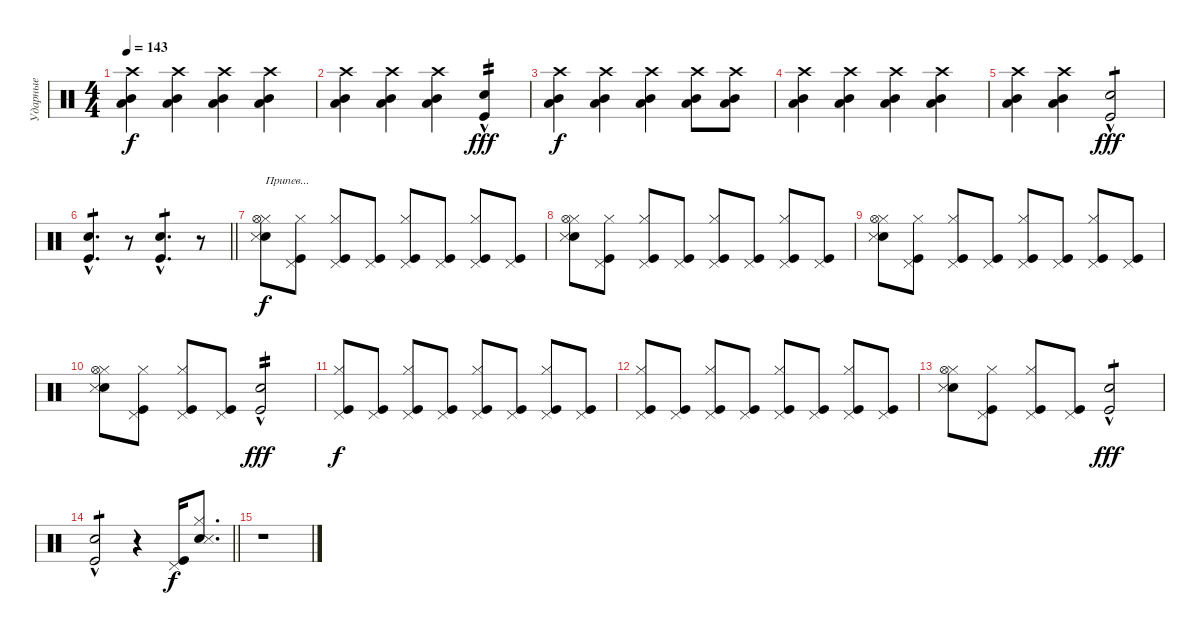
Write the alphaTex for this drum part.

\track ("Ударные" "Ударные") {instrument percussion}
\staff {score}
\articulation defaults
\ts (4 4)
\tempo 143
\clef neutral
\ks c
("Low Tom (hit)" "Mid Tom (hit)" "Crash high (hit)").4{dy f} ("Low Tom (hit)" "Mid Tom (hit)" "Crash high (hit)").4 ("Low Tom (hit)" "Mid Tom (hit)" "Crash high (hit)").4 ("Low Tom (hit)" "Mid Tom (hit)" "Crash high (hit)").4 |
("Low Tom (hit)" "Mid Tom (hit)" "Crash high (hit)").4 ("Low Tom (hit)" "Mid Tom (hit)" "Crash high (hit)").4 ("Low Tom (hit)" "Mid Tom (hit)" "Crash high (hit)").4 ("Snare (hit) 2"{hac} "Kick (hit)"{hac}).4{tp 2 dy fff} |
("Low Tom (hit)" "Mid Tom (hit)" "Crash high (hit)").4{dy f} ("Low Tom (hit)" "Mid Tom (hit)" "Crash high (hit)").4 ("Low Tom (hit)" "Mid Tom (hit)" "Crash high (hit)").4 ("Low Tom (hit)" "Mid Tom (hit)" "Crash high (hit)").8 ("Low Tom (hit)" "Mid Tom (hit)" "Crash high (hit)").8 |
("Low Tom (hit)" "Mid Tom (hit)" "Crash high (hit)").4 ("Low Tom (hit)" "Mid Tom (hit)" "Crash high (hit)").4 ("Low Tom (hit)" "Mid Tom (hit)" "Crash high (hit)").4 ("Low Tom (hit)" "Mid Tom (hit)" "Crash high (hit)").4 |
("Low Tom (hit)" "Mid Tom (hit)" "Crash high (hit)").4 ("Low Tom (hit)" "Mid Tom (hit)" "Crash high (hit)").4 ("Snare (hit) 2"{hac} "Kick (hit)"{hac}).2{tp 1 dy fff} |
\barLineRight lightlight
("Snare (hit) 2"{hac} "Kick (hit)"{hac}).4{d tp 1} r.8 ("Snare (hit) 2"{hac} "Kick (hit)"{hac}).4{d tp 1} r.8 |
("Snare (hit) 2" "Hi-Hat (closed)" "Snare (side stick) 3" "Hi-Hat (open)").8{txt "Припев..." dy f} ("Kick (hit)" "Pedal Hi-Hat (hit)" "Hi-Hat (closed)").8 ("Kick (hit)" "Pedal Hi-Hat (hit)" "Hi-Hat (closed)").8 ("Kick (hit)" "Pedal Hi-Hat (hit)").8 ("Kick (hit)" "Pedal Hi-Hat (hit)" "Hi-Hat (closed)").8 ("Kick (hit)" "Pedal Hi-Hat (hit)").8 ("Kick (hit)" "Pedal Hi-Hat (hit)" "Hi-Hat (closed)").8 ("Kick (hit)" "Pedal Hi-Hat (hit)").8 |
("Snare (hit) 2" "Hi-Hat (closed)" "Snare (side stick) 3" "Hi-Hat (open)").8 ("Kick (hit)" "Pedal Hi-Hat (hit)" "Hi-Hat (closed)").8 ("Kick (hit)" "Pedal Hi-Hat (hit)" "Hi-Hat (closed)").8 ("Kick (hit)" "Pedal Hi-Hat (hit)").8 ("Kick (hit)" "Pedal Hi-Hat (hit)" "Hi-Hat (closed)").8 ("Kick (hit)" "Pedal Hi-Hat (hit)").8 ("Kick (hit)" "Pedal Hi-Hat (hit)" "Hi-Hat (closed)").8 ("Kick (hit)" "Pedal Hi-Hat (hit)").8 |
("Snare (hit) 2" "Hi-Hat (closed)" "Snare (side stick) 3" "Hi-Hat (open)").8 ("Kick (hit)" "Pedal Hi-Hat (hit)" "Hi-Hat (closed)").8 ("Kick (hit)" "Pedal Hi-Hat (hit)" "Hi-Hat (closed)").8 ("Kick (hit)" "Pedal Hi-Hat (hit)").8 ("Kick (hit)" "Pedal Hi-Hat (hit)" "Hi-Hat (closed)").8 ("Kick (hit)" "Pedal Hi-Hat (hit)").8 ("Kick (hit)" "Pedal Hi-Hat (hit)" "Hi-Hat (closed)").8 ("Kick (hit)" "Pedal Hi-Hat (hit)").8 |
("Snare (hit) 2" "Hi-Hat (closed)" "Snare (side stick) 3" "Hi-Hat (open)").8 ("Kick (hit)" "Pedal Hi-Hat (hit)" "Hi-Hat (closed)").8 ("Kick (hit)" "Pedal Hi-Hat (hit)" "Hi-Hat (closed)").8 ("Kick (hit)" "Pedal Hi-Hat (hit)").8 ("Snare (hit) 2"{hac} "Kick (hit)"{hac}).2{tp 2 dy fff} |
("Kick (hit)" "Pedal Hi-Hat (hit)" "Hi-Hat (closed)").8{dy f} ("Kick (hit)" "Pedal Hi-Hat (hit)").8 ("Kick (hit)" "Pedal Hi-Hat (hit)" "Hi-Hat (closed)").8 ("Kick (hit)" "Pedal Hi-Hat (hit)").8 ("Kick (hit)" "Pedal Hi-Hat (hit)" "Hi-Hat (closed)").8 ("Kick (hit)" "Pedal Hi-Hat (hit)").8 ("Kick (hit)" "Pedal Hi-Hat (hit)" "Hi-Hat (closed)").8 ("Kick (hit)" "Pedal Hi-Hat (hit)").8 |
("Kick (hit)" "Pedal Hi-Hat (hit)" "Hi-Hat (closed)").8 ("Kick (hit)" "Pedal Hi-Hat (hit)").8 ("Kick (hit)" "Pedal Hi-Hat (hit)" "Hi-Hat (closed)").8 ("Kick (hit)" "Pedal Hi-Hat (hit)").8 ("Kick (hit)" "Pedal Hi-Hat (hit)" "Hi-Hat (closed)").8 ("Kick (hit)" "Pedal Hi-Hat (hit)").8 ("Kick (hit)" "Pedal Hi-Hat (hit)" "Hi-Hat (closed)").8 ("Kick (hit)" "Pedal Hi-Hat (hit)").8 |
("Snare (hit) 2" "Hi-Hat (closed)" "Snare (side stick) 3" "Hi-Hat (open)").8 ("Kick (hit)" "Pedal Hi-Hat (hit)" "Hi-Hat (closed)").8 ("Kick (hit)" "Pedal Hi-Hat (hit)" "Hi-Hat (closed)").8 ("Kick (hit)" "Pedal Hi-Hat (hit)").8 ("Snare (hit) 2"{hac} "Kick (hit)"{hac}).2{tp 1 dy fff} |
\barLineRight lightlight
("Snare (hit) 2"{hac} "Kick (hit)"{hac}).2{tp 1} r.4 ("Kick (hit)" "Pedal Hi-Hat (hit)").16{dy f} ("Snare (hit) 2" "Hi-Hat (closed)" "Snare (side stick) 3").8{d} |
r.1
